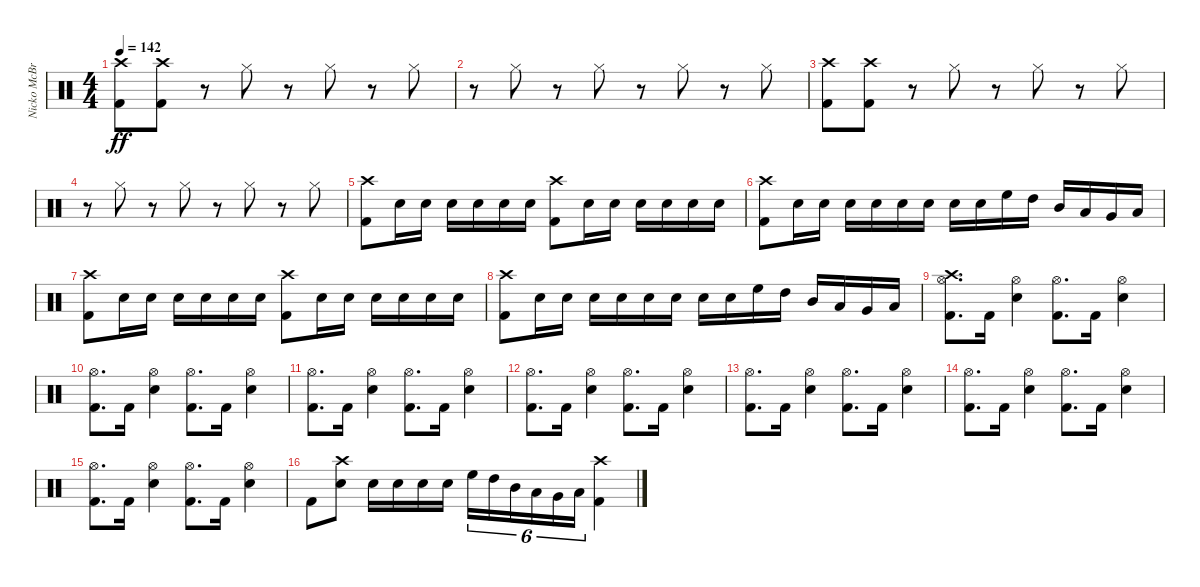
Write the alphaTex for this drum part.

\track ("Nicko McBrain" "Nicko McBr") {instrument percussion}
\staff {score}
\articulation defaults
\ts (4 4)
\tempo 142
\clef neutral
\ks c
("Kick (hit) 2" "Crash high (hit)").8{dy ff} ("Kick (hit) 2" "Crash high (hit)").8 r.8 "Hi-Hat (closed)".8 r.8 "Hi-Hat (closed)".8 r.8 "Hi-Hat (closed)".8 |
r.8 "Hi-Hat (closed)".8 r.8 "Hi-Hat (closed)".8 r.8 "Hi-Hat (closed)".8 r.8 "Hi-Hat (closed)".8 |
("Kick (hit) 2" "Crash high (hit)").8 ("Kick (hit) 2" "Crash high (hit)").8 r.8 "Hi-Hat (closed)".8 r.8 "Hi-Hat (closed)".8 r.8 "Hi-Hat (closed)".8 |
r.8 "Hi-Hat (closed)".8 r.8 "Hi-Hat (closed)".8 r.8 "Hi-Hat (closed)".8 r.8 "Hi-Hat (closed)".8 |
("Kick (hit) 2" "Crash high (hit)").8 "Snare (hit) 2".16 "Snare (hit) 2".16 "Snare (hit) 2".16 "Snare (hit) 2".16 "Snare (hit) 2".16 "Snare (hit) 2".16 ("Kick (hit) 2" "Crash high (hit)").8 "Snare (hit) 2".16 "Snare (hit) 2".16 "Snare (hit) 2".16 "Snare (hit) 2".16 "Snare (hit) 2".16 "Snare (hit) 2".16 |
("Kick (hit) 2" "Crash high (hit)").8 "Snare (hit) 2".16 "Snare (hit) 2".16 "Snare (hit) 2".16 "Snare (hit) 2".16 "Snare (hit) 2".16 "Snare (hit) 2".16 "Snare (hit) 2".16 "Snare (hit) 2".16 "High Floor Tom (hit)".16 "High Tom (hit)".16 "Mid Tom (hit)".16 "Low Tom (hit)".16 "Very Low Tom (hit)".16 "Low Floor Tom (hit)".16 |
("Kick (hit) 2" "Crash high (hit)").8 "Snare (hit) 2".16 "Snare (hit) 2".16 "Snare (hit) 2".16 "Snare (hit) 2".16 "Snare (hit) 2".16 "Snare (hit) 2".16 ("Kick (hit) 2" "Crash high (hit)").8 "Snare (hit) 2".16 "Snare (hit) 2".16 "Snare (hit) 2".16 "Snare (hit) 2".16 "Snare (hit) 2".16 "Snare (hit) 2".16 |
("Kick (hit) 2" "Crash high (hit)").8 "Snare (hit) 2".16 "Snare (hit) 2".16 "Snare (hit) 2".16 "Snare (hit) 2".16 "Snare (hit) 2".16 "Snare (hit) 2".16 "Snare (hit) 2".16 "Snare (hit) 2".16 "High Floor Tom (hit)".16 "High Tom (hit)".16 "Mid Tom (hit)".16 "Low Tom (hit)".16 "Very Low Tom (hit)".16 "Low Floor Tom (hit)".16 |
("Kick (hit) 2" "Hi-Hat (open)" "Crash high (hit)").8{d} "Kick (hit) 2".16 ("Snare (hit) 2" "Hi-Hat (open)").4 ("Kick (hit) 2" "Hi-Hat (open)").8{d} "Kick (hit) 2".16 ("Snare (hit) 2" "Hi-Hat (open)").4 |
("Kick (hit) 2" "Hi-Hat (open)").8{d} "Kick (hit) 2".16 ("Snare (hit) 2" "Hi-Hat (open)").4 ("Kick (hit) 2" "Hi-Hat (open)").8{d} "Kick (hit) 2".16 ("Snare (hit) 2" "Hi-Hat (open)").4 |
("Kick (hit) 2" "Hi-Hat (open)").8{d} "Kick (hit) 2".16 ("Snare (hit) 2" "Hi-Hat (open)").4 ("Kick (hit) 2" "Hi-Hat (open)").8{d} "Kick (hit) 2".16 ("Snare (hit) 2" "Hi-Hat (open)").4 |
("Kick (hit) 2" "Hi-Hat (open)").8{d} "Kick (hit) 2".16 ("Snare (hit) 2" "Hi-Hat (open)").4 ("Kick (hit) 2" "Hi-Hat (open)").8{d} "Kick (hit) 2".16 ("Snare (hit) 2" "Hi-Hat (open)").4 |
("Kick (hit) 2" "Hi-Hat (open)").8{d} "Kick (hit) 2".16 ("Snare (hit) 2" "Hi-Hat (open)").4 ("Kick (hit) 2" "Hi-Hat (open)").8{d} "Kick (hit) 2".16 ("Snare (hit) 2" "Hi-Hat (open)").4 |
("Kick (hit) 2" "Hi-Hat (open)").8{d} "Kick (hit) 2".16 ("Snare (hit) 2" "Hi-Hat (open)").4 ("Kick (hit) 2" "Hi-Hat (open)").8{d} "Kick (hit) 2".16 ("Snare (hit) 2" "Hi-Hat (open)").4 |
("Kick (hit) 2" "Hi-Hat (open)").8{d} "Kick (hit) 2".16 ("Snare (hit) 2" "Hi-Hat (open)").4 ("Kick (hit) 2" "Hi-Hat (open)").8{d} "Kick (hit) 2".16 ("Snare (hit) 2" "Hi-Hat (open)").4 |
"Kick (hit) 2".8 ("Snare (hit) 2" "Crash high (hit)").8 "Snare (hit) 2".16 "Snare (hit) 2".16 "Snare (hit) 2".16 "Snare (hit) 2".16 "High Floor Tom (hit)".16{tu (6 4)} "High Tom (hit)".16{tu (6 4)} "Mid Tom (hit)".16{tu (6 4)} "Low Tom (hit)".16{tu (6 4)} "Very Low Tom (hit)".16{tu (6 4)} "Low Floor Tom (hit)".16{tu (6 4)} ("Kick (hit) 2" "Crash high (hit)").4
